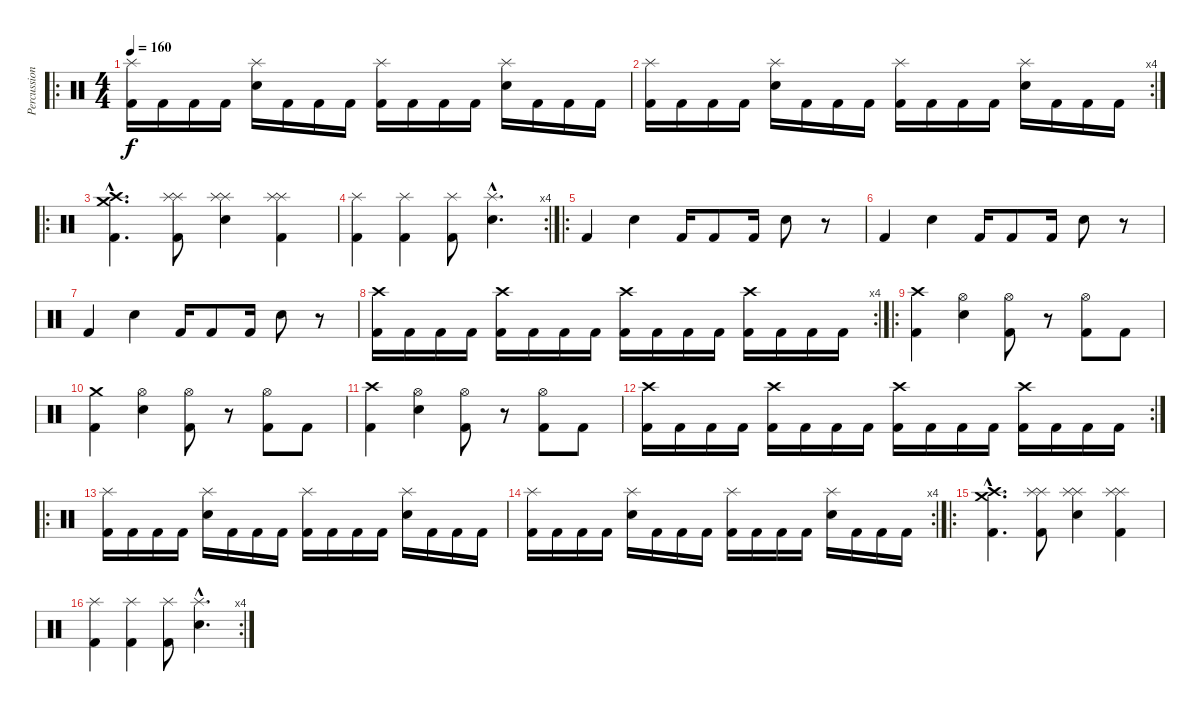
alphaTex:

\track ("Percussion" "Percussion") {instrument percussion}
\staff {score}
\articulation defaults
\ro
\ts (4 4)
\tempo 160
\clef neutral
\ks c
("Splash (hit)" "Kick (hit) 2").16{dy f} "Kick (hit) 2".16 "Kick (hit) 2".16 "Kick (hit) 2".16 ("Splash (hit)" "Snare (hit) 2").16 "Kick (hit) 2".16 "Kick (hit) 2".16 "Kick (hit) 2".16 ("Splash (hit)" "Kick (hit) 2").16 "Kick (hit) 2".16 "Kick (hit) 2".16 "Kick (hit) 2".16 ("Splash (hit)" "Snare (hit) 2").16 "Kick (hit) 2".16 "Kick (hit) 2".16 "Kick (hit) 2".16 |
\rc 4
("Splash (hit)" "Kick (hit) 2").16 "Kick (hit) 2".16 "Kick (hit) 2".16 "Kick (hit) 2".16 ("Splash (hit)" "Snare (hit) 2").16 "Kick (hit) 2".16 "Kick (hit) 2".16 "Kick (hit) 2".16 ("Splash (hit)" "Kick (hit) 2").16 "Kick (hit) 2".16 "Kick (hit) 2".16 "Kick (hit) 2".16 ("Splash (hit)" "Snare (hit) 2").16 "Kick (hit) 2".16 "Kick (hit) 2".16 "Kick (hit) 2".16 |
\ro
("Crash high (hit)"{hac} "Crash medium (hit)"{hac} "Kick (hit) 2"{hac}).4{d} ("Splash (hit)" "Splash (hit)" "Kick (hit) 2").8 ("Splash (hit)" "Splash (hit)" "Snare (hit) 2").4 ("Splash (hit)" "Splash (hit)" "Kick (hit) 2").4 |
\rc 4
("Splash (hit)" "Kick (hit) 2").4 ("Splash (hit)" "Kick (hit) 2").4 ("Splash (hit)" "Kick (hit) 2").8 ("Splash (hit)"{hac} "Snare (hit) 2"{hac}).4{d} |
\ro "Kick (hit) 2".4 "Snare (hit) 2".4 "Kick (hit) 2".16 "Kick (hit) 2".8 "Kick (hit) 2".16 "Snare (hit) 2".8
r.8 |
"Kick (hit) 2".4 "Snare (hit) 2".4 "Kick (hit) 2".16 "Kick (hit) 2".8 "Kick (hit) 2".16 "Snare (hit) 2".8 r.8 |
"Kick (hit) 2".4 "Snare (hit) 2".4 "Kick (hit) 2".16 "Kick (hit) 2".8 "Kick (hit) 2".16 "Snare (hit) 2".8 r.8 |
\rc 4
("Crash high (hit)" "Kick (hit) 2").16 "Kick (hit) 2".16 "Kick (hit) 2".16 "Kick (hit) 2".16 ("Crash high (hit)" "Kick (hit) 2").16 "Kick (hit) 2".16 "Kick (hit) 2".16 "Kick (hit) 2".16 ("Crash high (hit)" "Kick (hit) 2").16 "Kick (hit) 2".16 "Kick (hit) 2".16 "Kick (hit) 2".16 ("Crash high (hit)" "Kick (hit) 2").16 "Kick (hit) 2".16 "Kick (hit) 2".16 "Kick (hit) 2".16 |
\ro
("Crash high (hit)" "Kick (hit) 2").4 ("Hi-Hat (open)" "Snare (hit) 2").4 ("Hi-Hat (open)" "Kick (hit) 2").8 r.8 ("Hi-Hat (open)" "Kick (hit) 2").8 "Kick (hit) 2".8 |
("Crash medium (hit)" "Kick (hit) 2").4 ("Hi-Hat (open)" "Snare (hit) 2").4 ("Hi-Hat (open)" "Kick (hit) 2").8 r.8 ("Hi-Hat (open)" "Kick (hit) 2").8 "Kick (hit) 2".8 |
("Crash high (hit)" "Kick (hit) 2").4 ("Hi-Hat (open)" "Snare (hit) 2").4 ("Hi-Hat (open)" "Kick (hit) 2").8 r.8 ("Hi-Hat (open)" "Kick (hit) 2").8 "Kick (hit) 2".8 |
\rc 2
("Crash high (hit)" "Kick (hit) 2").16 "Kick (hit) 2".16 "Kick (hit) 2".16 "Kick (hit) 2".16 ("Crash high (hit)" "Kick (hit) 2").16 "Kick (hit) 2".16 "Kick (hit) 2".16 "Kick (hit) 2".16 ("Crash high (hit)" "Kick (hit) 2").16 "Kick (hit) 2".16 "Kick (hit) 2".16 "Kick (hit) 2".16 ("Crash high (hit)" "Kick (hit) 2").16 "Kick (hit) 2".16 "Kick (hit) 2".16 "Kick (hit) 2".16 |
\ro
("Splash (hit)" "Kick (hit) 2").16 "Kick (hit) 2".16 "Kick (hit) 2".16 "Kick (hit) 2".16 ("Splash (hit)" "Snare (hit) 2").16 "Kick (hit) 2".16 "Kick (hit) 2".16 "Kick (hit) 2".16 ("Splash (hit)" "Kick (hit) 2").16 "Kick (hit) 2".16 "Kick (hit) 2".16 "Kick (hit) 2".16 ("Splash (hit)" "Snare (hit) 2").16 "Kick (hit) 2".16 "Kick (hit) 2".16 "Kick (hit) 2".16 |
\rc 4
("Splash (hit)" "Kick (hit) 2").16 "Kick (hit) 2".16 "Kick (hit) 2".16 "Kick (hit) 2".16 ("Splash (hit)" "Snare (hit) 2").16 "Kick (hit) 2".16 "Kick (hit) 2".16 "Kick (hit) 2".16 ("Splash (hit)" "Kick (hit) 2").16 "Kick (hit) 2".16 "Kick (hit) 2".16 "Kick (hit) 2".16 ("Splash (hit)" "Snare (hit) 2").16 "Kick (hit) 2".16 "Kick (hit) 2".16 "Kick (hit) 2".16 |
\ro
("Crash high (hit)"{hac} "Crash medium (hit)"{hac} "Kick (hit) 2"{hac}).4{d} ("Splash (hit)" "Splash (hit)" "Kick (hit) 2").8 ("Splash (hit)" "Splash (hit)" "Snare (hit) 2").4 ("Splash (hit)" "Splash (hit)" "Kick (hit) 2").4 |
\rc 4
("Splash (hit)" "Kick (hit) 2").4 ("Splash (hit)" "Kick (hit) 2").4 ("Splash (hit)" "Kick (hit) 2").8 ("Splash (hit)"{hac} "Snare (hit) 2"{hac}).4{d}
